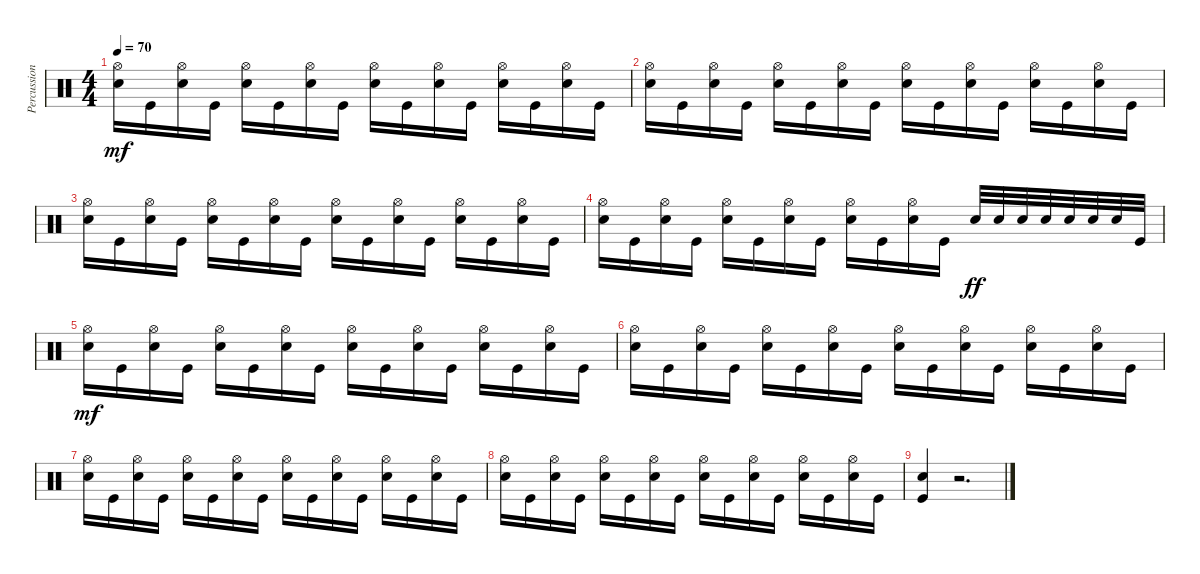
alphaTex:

\track ("Percussions" "Percussion") {instrument percussion}
\staff {score}
\articulation defaults
\ts (4 4)
\tempo 70
\clef neutral
\ks c
("Electric Snare (hit)" "Hi-Hat (open)").16{dy mf} "Kick (hit)".16 ("Electric Snare (hit)" "Hi-Hat (open)").16 "Kick (hit)".16 ("Electric Snare (hit)" "Hi-Hat (open)").16 "Kick (hit)".16 ("Electric Snare (hit)" "Hi-Hat (open)").16 "Kick (hit)".16 ("Electric Snare (hit)" "Hi-Hat (open)").16 "Kick (hit)".16 ("Electric Snare (hit)" "Hi-Hat (open)").16 "Kick (hit)".16 ("Electric Snare (hit)" "Hi-Hat (open)").16 "Kick (hit)".16 ("Electric Snare (hit)" "Hi-Hat (open)").16 "Kick (hit)".16 |
("Electric Snare (hit)" "Hi-Hat (open)").16 "Kick (hit)".16 ("Electric Snare (hit)" "Hi-Hat (open)").16 "Kick (hit)".16 ("Electric Snare (hit)" "Hi-Hat (open)").16 "Kick (hit)".16 ("Electric Snare (hit)" "Hi-Hat (open)").16 "Kick (hit)".16 ("Electric Snare (hit)" "Hi-Hat (open)").16 "Kick (hit)".16 ("Electric Snare (hit)" "Hi-Hat (open)").16 "Kick (hit)".16 ("Electric Snare (hit)" "Hi-Hat (open)").16 "Kick (hit)".16 ("Electric Snare (hit)" "Hi-Hat (open)").16 "Kick (hit)".16 |
("Electric Snare (hit)" "Hi-Hat (open)").16 "Kick (hit)".16 ("Electric Snare (hit)" "Hi-Hat (open)").16 "Kick (hit)".16 ("Electric Snare (hit)" "Hi-Hat (open)").16 "Kick (hit)".16 ("Electric Snare (hit)" "Hi-Hat (open)").16 "Kick (hit)".16 ("Electric Snare (hit)" "Hi-Hat (open)").16 "Kick (hit)".16 ("Electric Snare (hit)" "Hi-Hat (open)").16 "Kick (hit)".16 ("Electric Snare (hit)" "Hi-Hat (open)").16 "Kick (hit)".16 ("Electric Snare (hit)" "Hi-Hat (open)").16 "Kick (hit)".16 |
("Electric Snare (hit)" "Hi-Hat (open)").16 "Kick (hit)".16 ("Electric Snare (hit)" "Hi-Hat (open)").16 "Kick (hit)".16 ("Electric Snare (hit)" "Hi-Hat (open)").16 "Kick (hit)".16 ("Electric Snare (hit)" "Hi-Hat (open)").16 "Kick (hit)".16 ("Electric Snare (hit)" "Hi-Hat (open)").16 "Kick (hit)".16 ("Electric Snare (hit)" "Hi-Hat (open)").16 "Kick (hit)".16 "Electric Snare (hit)".32{dy ff} "Electric Snare (hit)".32 "Electric Snare (hit)".32 "Electric Snare (hit)".32 "Electric Snare (hit)".32 "Electric Snare (hit)".32 "Electric Snare (hit)".32 "Kick (hit)".32 |
("Electric Snare (hit)" "Hi-Hat (open)").16{dy mf} "Kick (hit)".16 ("Electric Snare (hit)" "Hi-Hat (open)").16 "Kick (hit)".16 ("Electric Snare (hit)" "Hi-Hat (open)").16 "Kick (hit)".16 ("Electric Snare (hit)" "Hi-Hat (open)").16 "Kick (hit)".16 ("Electric Snare (hit)" "Hi-Hat (open)").16 "Kick (hit)".16 ("Electric Snare (hit)" "Hi-Hat (open)").16 "Kick (hit)".16 ("Electric Snare (hit)" "Hi-Hat (open)").16 "Kick (hit)".16 ("Electric Snare (hit)" "Hi-Hat (open)").16 "Kick (hit)".16 |
("Electric Snare (hit)" "Hi-Hat (open)").16 "Kick (hit)".16 ("Electric Snare (hit)" "Hi-Hat (open)").16 "Kick (hit)".16 ("Electric Snare (hit)" "Hi-Hat (open)").16 "Kick (hit)".16 ("Electric Snare (hit)" "Hi-Hat (open)").16 "Kick (hit)".16 ("Electric Snare (hit)" "Hi-Hat (open)").16 "Kick (hit)".16 ("Electric Snare (hit)" "Hi-Hat (open)").16 "Kick (hit)".16 ("Electric Snare (hit)" "Hi-Hat (open)").16 "Kick (hit)".16 ("Electric Snare (hit)" "Hi-Hat (open)").16 "Kick (hit)".16 |
("Electric Snare (hit)" "Hi-Hat (open)").16 "Kick (hit)".16 ("Electric Snare (hit)" "Hi-Hat (open)").16 "Kick (hit)".16 ("Electric Snare (hit)" "Hi-Hat (open)").16 "Kick (hit)".16 ("Electric Snare (hit)" "Hi-Hat (open)").16 "Kick (hit)".16 ("Electric Snare (hit)" "Hi-Hat (open)").16 "Kick (hit)".16 ("Electric Snare (hit)" "Hi-Hat (open)").16 "Kick (hit)".16 ("Electric Snare (hit)" "Hi-Hat (open)").16 "Kick (hit)".16 ("Electric Snare (hit)" "Hi-Hat (open)").16 "Kick (hit)".16 |
("Electric Snare (hit)" "Hi-Hat (open)").16 "Kick (hit)".16 ("Electric Snare (hit)" "Hi-Hat (open)").16 "Kick (hit)".16 ("Electric Snare (hit)" "Hi-Hat (open)").16 "Kick (hit)".16 ("Electric Snare (hit)" "Hi-Hat (open)").16 "Kick (hit)".16 ("Electric Snare (hit)" "Hi-Hat (open)").16 "Kick (hit)".16 ("Electric Snare (hit)" "Hi-Hat (open)").16 "Kick (hit)".16 ("Electric Snare (hit)" "Hi-Hat (open)").16 "Kick (hit)".16 ("Electric Snare (hit)" "Hi-Hat (open)").16 "Kick (hit)".16 |
("Kick (hit)" "Electric Snare (hit)").4 r.2{d}
